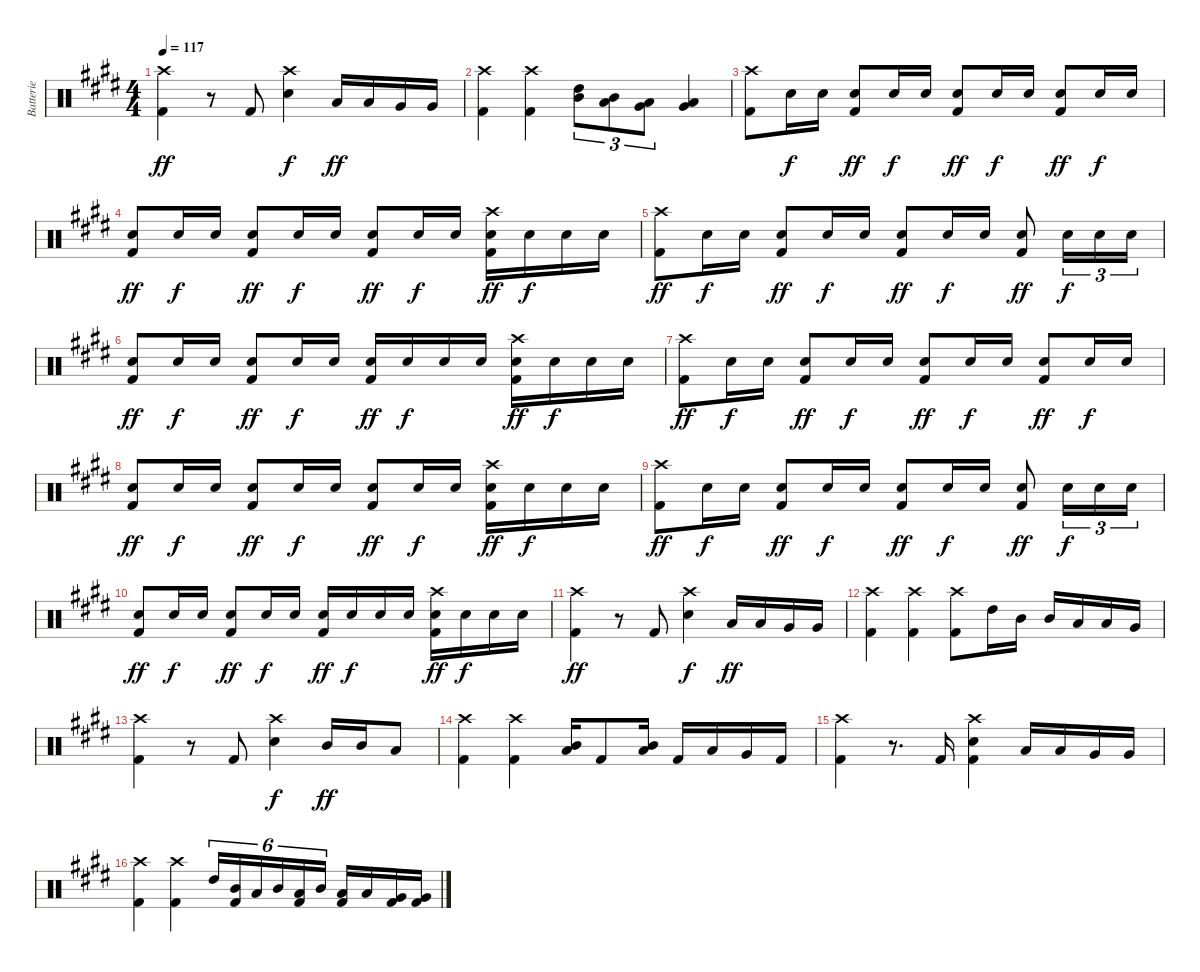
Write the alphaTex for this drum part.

\track ("Batterie" "Batterie") {instrument percussion}
\staff {score}
\articulation defaults
\ts (4 4)
\tempo 117
\clef neutral
\ks e
("Crash high (hit)" "Kick (hit) 2").4{dy ff} r.8 "Kick (hit) 2".8 ("Crash high (hit)" "Snare (hit) 2").4{dy f} "Low Tom (hit)".16{dy ff} "Low Tom (hit)".16 "Very Low Tom (hit)".16 "Very Low Tom (hit)".16 |
("Crash high (hit)" "Kick (hit) 2").4 ("Crash high (hit)" "Kick (hit) 2").4 ("High Tom (hit)" "Mid Tom (hit)").8{tu (3 2)} ("Mid Tom (hit)" "Low Tom (hit)").8{tu (3 2)} ("Low Tom (hit)" "Very Low Tom (hit)").8{tu (3 2)} ("Low Tom (hit)" "Very Low Tom (hit)").4 |
("Crash high (hit)" "Kick (hit) 2").8 "Snare (hit) 2".16{dy f} "Snare (hit) 2".16 ("Snare (hit) 2" "Kick (hit) 2").8{dy ff} "Snare (hit) 2".16{dy f} "Snare (hit) 2".16 ("Snare (hit) 2" "Kick (hit) 2").8{dy ff} "Snare (hit) 2".16{dy f} "Snare (hit) 2".16 ("Snare (hit) 2" "Kick (hit) 2").8{dy ff} "Snare (hit) 2".16{dy f} "Snare (hit) 2".16 |
("Snare (hit) 2" "Kick (hit) 2").8{dy ff} "Snare (hit) 2".16{dy f} "Snare (hit) 2".16 ("Snare (hit) 2" "Kick (hit) 2").8{dy ff} "Snare (hit) 2".16{dy f} "Snare (hit) 2".16 ("Snare (hit) 2" "Kick (hit) 2").8{dy ff} "Snare (hit) 2".16{dy f} "Snare (hit) 2".16 ("Crash high (hit)" "Snare (hit) 2" "Kick (hit) 2").16{dy ff} "Snare (hit) 2".16{dy f} "Snare (hit) 2".16 "Snare (hit) 2".16 |
("Crash high (hit)" "Kick (hit) 2").8{dy ff} "Snare (hit) 2".16{dy f} "Snare (hit) 2".16 ("Snare (hit) 2" "Kick (hit) 2").8{dy ff} "Snare (hit) 2".16{dy f} "Snare (hit) 2".16 ("Snare (hit) 2" "Kick (hit) 2").8{dy ff} "Snare (hit) 2".16{dy f} "Snare (hit) 2".16 ("Snare (hit) 2" "Kick (hit) 2").8{dy ff} "Snare (hit) 2".16{tu (3 2) dy f} "Snare (hit) 2".16{tu (3 2)} "Snare (hit) 2".16{tu (3 2)} |
("Snare (hit) 2" "Kick (hit) 2").8{dy ff} "Snare (hit) 2".16{dy f} "Snare (hit) 2".16 ("Snare (hit) 2" "Kick (hit) 2").8{dy ff} "Snare (hit) 2".16{dy f} "Snare (hit) 2".16 ("Snare (hit) 2" "Kick (hit) 2").16{dy ff} "Snare (hit) 2".16{dy f} "Snare (hit) 2".16 "Snare (hit) 2".16 ("Crash high (hit)" "Snare (hit) 2" "Kick (hit) 2").16{dy ff} "Snare (hit) 2".16{dy f} "Snare (hit) 2".16 "Snare (hit) 2".16 |
("Crash high (hit)" "Kick (hit) 2").8{dy ff} "Snare (hit) 2".16{dy f} "Snare (hit) 2".16 ("Snare (hit) 2" "Kick (hit) 2").8{dy ff} "Snare (hit) 2".16{dy f} "Snare (hit) 2".16 ("Snare (hit) 2" "Kick (hit) 2").8{dy ff} "Snare (hit) 2".16{dy f} "Snare (hit) 2".16 ("Snare (hit) 2" "Kick (hit) 2").8{dy ff} "Snare (hit) 2".16{dy f} "Snare (hit) 2".16 |
("Snare (hit) 2" "Kick (hit) 2").8{dy ff} "Snare (hit) 2".16{dy f} "Snare (hit) 2".16 ("Snare (hit) 2" "Kick (hit) 2").8{dy ff} "Snare (hit) 2".16{dy f} "Snare (hit) 2".16 ("Snare (hit) 2" "Kick (hit) 2").8{dy ff} "Snare (hit) 2".16{dy f} "Snare (hit) 2".16 ("Crash high (hit)" "Snare (hit) 2" "Kick (hit) 2").16{dy ff} "Snare (hit) 2".16{dy f} "Snare (hit) 2".16 "Snare (hit) 2".16 |
("Crash high (hit)" "Kick (hit) 2").8{dy ff} "Snare (hit) 2".16{dy f} "Snare (hit) 2".16 ("Snare (hit) 2" "Kick (hit) 2").8{dy ff} "Snare (hit) 2".16{dy f} "Snare (hit) 2".16 ("Snare (hit) 2" "Kick (hit) 2").8{dy ff} "Snare (hit) 2".16{dy f} "Snare (hit) 2".16 ("Snare (hit) 2" "Kick (hit) 2").8{dy ff} "Snare (hit) 2".16{tu (3 2) dy f} "Snare (hit) 2".16{tu (3 2)} "Snare (hit) 2".16{tu (3 2)} |
("Snare (hit) 2" "Kick (hit) 2").8{dy ff} "Snare (hit) 2".16{dy f} "Snare (hit) 2".16 ("Snare (hit) 2" "Kick (hit) 2").8{dy ff} "Snare (hit) 2".16{dy f} "Snare (hit) 2".16 ("Snare (hit) 2" "Kick (hit) 2").16{dy ff} "Snare (hit) 2".16{dy f} "Snare (hit) 2".16 "Snare (hit) 2".16 ("Crash high (hit)" "Snare (hit) 2" "Kick (hit) 2").16{dy ff} "Snare (hit) 2".16{dy f} "Snare (hit) 2".16 "Snare (hit) 2".16 |
("Crash high (hit)" "Kick (hit) 2").4{dy ff} r.8 "Kick (hit) 2".8 ("Crash high (hit)" "Snare (hit) 2").4{dy f} "Low Tom (hit)".16{dy ff} "Low Tom (hit)".16 "Very Low Tom (hit)".16 "Very Low Tom (hit)".16 |
("Crash high (hit)" "Kick (hit) 2").4 ("Crash high (hit)" "Kick (hit) 2").4 ("Crash high (hit)" "Kick (hit) 2").8 "High Tom (hit)".16 "Mid Tom (hit)".16 "Mid Tom (hit)".16 "Low Tom (hit)".16 "Low Tom (hit)".16 "Very Low Tom (hit)".16 |
("Crash high (hit)" "Kick (hit) 2").4 r.8 "Kick (hit) 2".8 ("Crash high (hit)" "Snare (hit) 2").4{dy f} "Mid Tom (hit)".16{dy ff} "Mid Tom (hit)".16 "Low Tom (hit)".8 |
("Crash high (hit)" "Kick (hit) 2").4 ("Crash high (hit)" "Kick (hit) 2").4 ("Mid Tom (hit)" "Low Tom (hit)").16 "Kick (hit) 2".8 ("Mid Tom (hit)" "Low Tom (hit)").16 "Kick (hit) 2".16 "Low Tom (hit)".16 "Very Low Tom (hit)".16 "Kick (hit) 2".16 |
("Crash high (hit)" "Kick (hit) 2").4 r.8{d} "Kick (hit) 2".16 ("Crash high (hit)" "Snare (hit) 2" "Kick (hit) 2").4 "Low Tom (hit)".16 "Low Tom (hit)".16 "Very Low Tom (hit)".16 "Very Low Tom (hit)".16 |
("Crash high (hit)" "Kick (hit) 2").4 ("Crash high (hit)" "Kick (hit) 2").4 "High Tom (hit)".16{tu (6 4)} ("Mid Tom (hit)" "Kick (hit) 2").16{tu (6 4)} "Low Tom (hit)".16{tu (6 4)} "Mid Tom (hit)".16{tu (6 4)} ("Low Tom (hit)" "Kick (hit) 2").16{tu (6 4)} "Mid Tom (hit)".16{tu (6 4)} ("Low Tom (hit)" "Kick (hit) 2").16 "Low Tom (hit)".16 ("Very Low Tom (hit)" "Kick (hit) 2").16 ("Very Low Tom (hit)" "Kick (hit) 2").16
